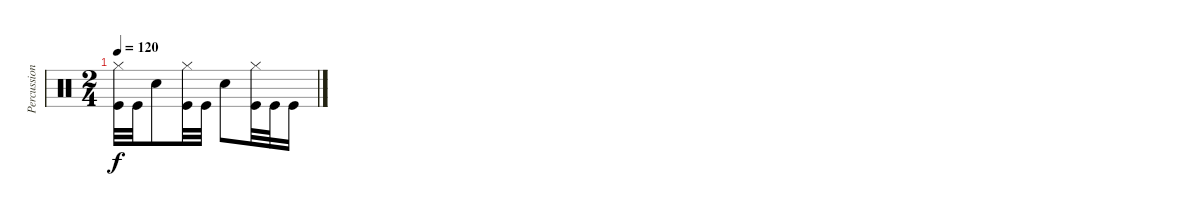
\track ("Percussion" "Percussion") {instrument percussion}
\staff {score}
\articulation defaults
\ts (2 4)
\tempo 120
\clef neutral
\ks c
("Hi-Hat (closed)" "Kick (hit)").32{dy f} "Kick (hit)".32 "Snare (hit) 2".8 ("Hi-Hat (closed)" "Kick (hit)").32 "Kick (hit)".32 "Snare (hit) 2".8 ("Hi-Hat (closed)" "Kick (hit)").32 "Kick (hit)".32 "Kick (hit)".16
